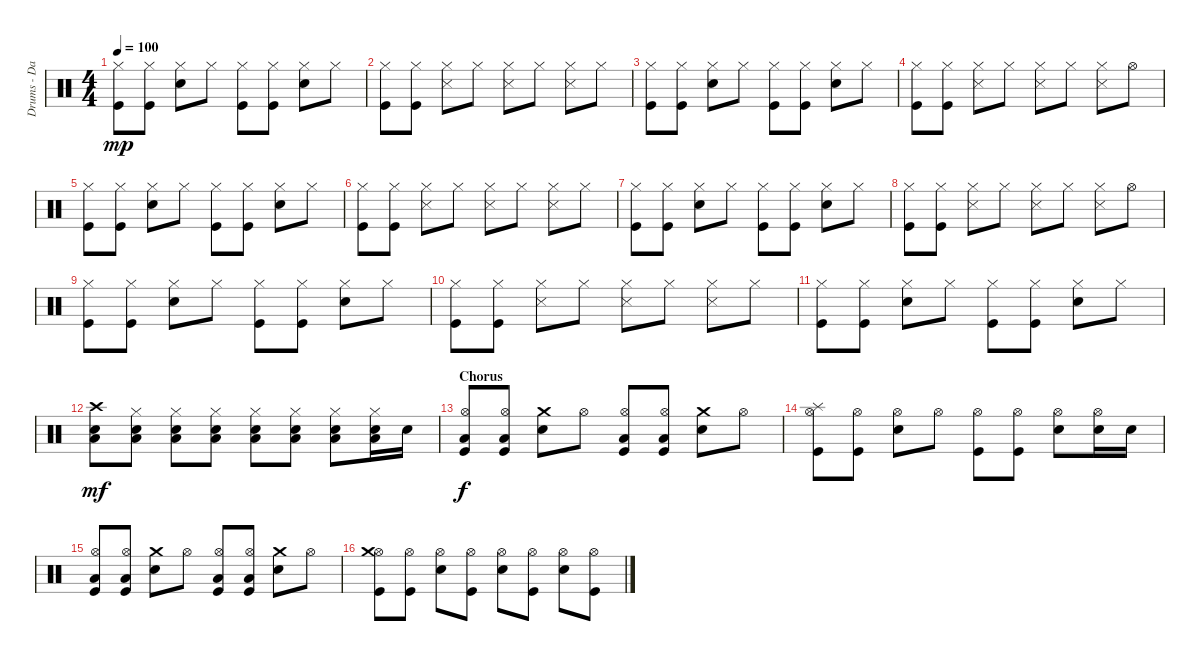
\track ("Drums - Dave Grohl" "Drums - Da") {instrument percussion}
\staff {score}
\articulation defaults
\ts (4 4)
\tempo 100
\clef neutral
\ks c
("Kick (hit)" "Hi-Hat (closed)").8{dy mp} ("Hi-Hat (closed)" "Kick (hit)").8 ("Hi-Hat (closed)" "Snare (hit) 2").8 "Hi-Hat (closed)".8 ("Kick (hit)" "Hi-Hat (closed)").8 ("Kick (hit)" "Hi-Hat (closed)").8 ("Snare (hit) 2" "Hi-Hat (closed)").8 "Hi-Hat (closed)".8 |
("Kick (hit)" "Hi-Hat (closed)").8 ("Kick (hit)" "Hi-Hat (closed)").8 ("Hi-Hat (closed)" "Snare (side stick) 3").8 "Hi-Hat (closed)".8 ("Hi-Hat (closed)" "Snare (side stick) 3").8 "Hi-Hat (closed)".8 ("Hi-Hat (closed)" "Snare (side stick) 3").8 "Hi-Hat (closed)".8 |
("Kick (hit)" "Hi-Hat (closed)").8 ("Hi-Hat (closed)" "Kick (hit)").8 ("Hi-Hat (closed)" "Snare (hit) 2").8 "Hi-Hat (closed)".8 ("Kick (hit)" "Hi-Hat (closed)").8 ("Kick (hit)" "Hi-Hat (closed)").8 ("Snare (hit) 2" "Hi-Hat (closed)").8 "Hi-Hat (closed)".8 |
("Kick (hit)" "Hi-Hat (closed)").8 ("Kick (hit)" "Hi-Hat (closed)").8 ("Hi-Hat (closed)" "Snare (side stick) 3").8 "Hi-Hat (closed)".8 ("Hi-Hat (closed)" "Snare (side stick) 3").8 "Hi-Hat (closed)".8 ("Hi-Hat (closed)" "Snare (side stick) 3").8 "Hi-Hat (open)".8 |
("Kick (hit)" "Hi-Hat (closed)").8 ("Hi-Hat (closed)" "Kick (hit)").8 ("Hi-Hat (closed)" "Snare (hit) 2").8 "Hi-Hat (closed)".8 ("Kick (hit)" "Hi-Hat (closed)").8 ("Kick (hit)" "Hi-Hat (closed)").8 ("Snare (hit) 2" "Hi-Hat (closed)").8 "Hi-Hat (closed)".8 |
("Kick (hit)" "Hi-Hat (closed)").8 ("Kick (hit)" "Hi-Hat (closed)").8 ("Hi-Hat (closed)" "Snare (side stick) 3").8 "Hi-Hat (closed)".8 ("Hi-Hat (closed)" "Snare (side stick) 3").8 "Hi-Hat (closed)".8 ("Hi-Hat (closed)" "Snare (side stick) 3").8 "Hi-Hat (closed)".8 |
("Kick (hit)" "Hi-Hat (closed)").8 ("Hi-Hat (closed)" "Kick (hit)").8 ("Hi-Hat (closed)" "Snare (hit) 2").8 "Hi-Hat (closed)".8 ("Kick (hit)" "Hi-Hat (closed)").8 ("Kick (hit)" "Hi-Hat (closed)").8 ("Snare (hit) 2" "Hi-Hat (closed)").8 "Hi-Hat (closed)".8 |
("Kick (hit)" "Hi-Hat (closed)").8 ("Kick (hit)" "Hi-Hat (closed)").8 ("Hi-Hat (closed)" "Snare (side stick) 3").8 "Hi-Hat (closed)".8 ("Hi-Hat (closed)" "Snare (side stick) 3").8 "Hi-Hat (closed)".8 ("Hi-Hat (closed)" "Snare (side stick) 3").8 "Hi-Hat (open)".8 |
("Kick (hit)" "Hi-Hat (closed)").8 ("Hi-Hat (closed)" "Kick (hit)").8 ("Hi-Hat (closed)" "Snare (hit) 2").8 "Hi-Hat (closed)".8 ("Kick (hit)" "Hi-Hat (closed)").8 ("Kick (hit)" "Hi-Hat (closed)").8 ("Snare (hit) 2" "Hi-Hat (closed)").8 "Hi-Hat (closed)".8 |
("Kick (hit)" "Hi-Hat (closed)").8 ("Kick (hit)" "Hi-Hat (closed)").8 ("Hi-Hat (closed)" "Snare (side stick) 3").8 "Hi-Hat (closed)".8 ("Hi-Hat (closed)" "Snare (side stick) 3").8 "Hi-Hat (closed)".8 ("Hi-Hat (closed)" "Snare (side stick) 3").8 "Hi-Hat (closed)".8 |
("Kick (hit)" "Hi-Hat (closed)").8 ("Hi-Hat (closed)" "Kick (hit)").8 ("Hi-Hat (closed)" "Snare (hit) 2").8 "Hi-Hat (closed)".8 ("Kick (hit)" "Hi-Hat (closed)").8 ("Kick (hit)" "Hi-Hat (closed)").8 ("Snare (hit) 2" "Hi-Hat (closed)").8 "Hi-Hat (closed)".8 |
("Crash high (hit)" "Snare (hit) 2" "Low Tom (hit)").8{dy mf} ("Snare (hit) 2" "Low Tom (hit)" "Hi-Hat (closed)").8 ("Snare (hit) 2" "Low Tom (hit)" "Hi-Hat (closed)").8 ("Snare (hit) 2" "Low Tom (hit)" "Hi-Hat (closed)").8 ("Snare (hit) 2" "Low Tom (hit)" "Hi-Hat (closed)").8 ("Snare (hit) 2" "Low Tom (hit)" "Hi-Hat (closed)").8 ("Snare (hit) 2" "Low Tom (hit)" "Hi-Hat (closed)").8 ("Snare (hit) 2" "Low Tom (hit)" "Hi-Hat (closed)").16 "Snare (hit) 2".16 |
\section ("" "Chorus")
("Kick (hit)" "Low Tom (hit)" "Hi-Hat (open)").8{dy f} ("Kick (hit)" "Low Tom (hit)" "Hi-Hat (open)").8 ("Snare (hit) 2" "Crash medium (hit)").8 "Hi-Hat (open)".8 ("Kick (hit)" "Low Tom (hit)" "Hi-Hat (open)").8 ("Kick (hit)" "Low Tom (hit)" "Hi-Hat (open)").8 ("Snare (hit) 2" "Crash medium (hit)").8 "Hi-Hat (open)".8 |
("Kick (hit)" "Hi-Hat (open)" "Splash (hit)").8 ("Kick (hit)" "Hi-Hat (open)").8 ("Snare (hit) 2" "Hi-Hat (open)").8 "Hi-Hat (open)".8 ("Kick (hit)" "Hi-Hat (open)").8 ("Kick (hit)" "Hi-Hat (open)").8 ("Snare (hit) 2" "Hi-Hat (open)").8 ("Snare (hit) 2" "Hi-Hat (open)").16 "Snare (hit) 2".16 |
("Kick (hit)" "Low Tom (hit)" "Hi-Hat (open)").8 ("Kick (hit)" "Low Tom (hit)" "Hi-Hat (open)").8 ("Snare (hit) 2" "Crash medium (hit)").8 "Hi-Hat (open)".8 ("Kick (hit)" "Low Tom (hit)" "Hi-Hat (open)").8 ("Kick (hit)" "Low Tom (hit)" "Hi-Hat (open)").8 ("Snare (hit) 2" "Crash medium (hit)").8 "Hi-Hat (open)".8 |
("Kick (hit)" "Hi-Hat (open)" "Crash medium (hit)").8 ("Kick (hit)" "Hi-Hat (open)").8 ("Snare (hit) 2" "Hi-Hat (open)").8 ("Kick (hit)" "Hi-Hat (open)").8 ("Snare (hit) 2" "Hi-Hat (open)").8 ("Kick (hit)" "Hi-Hat (open)").8 ("Snare (hit) 2" "Hi-Hat (open)").8 ("Kick (hit)" "Hi-Hat (open)").8
